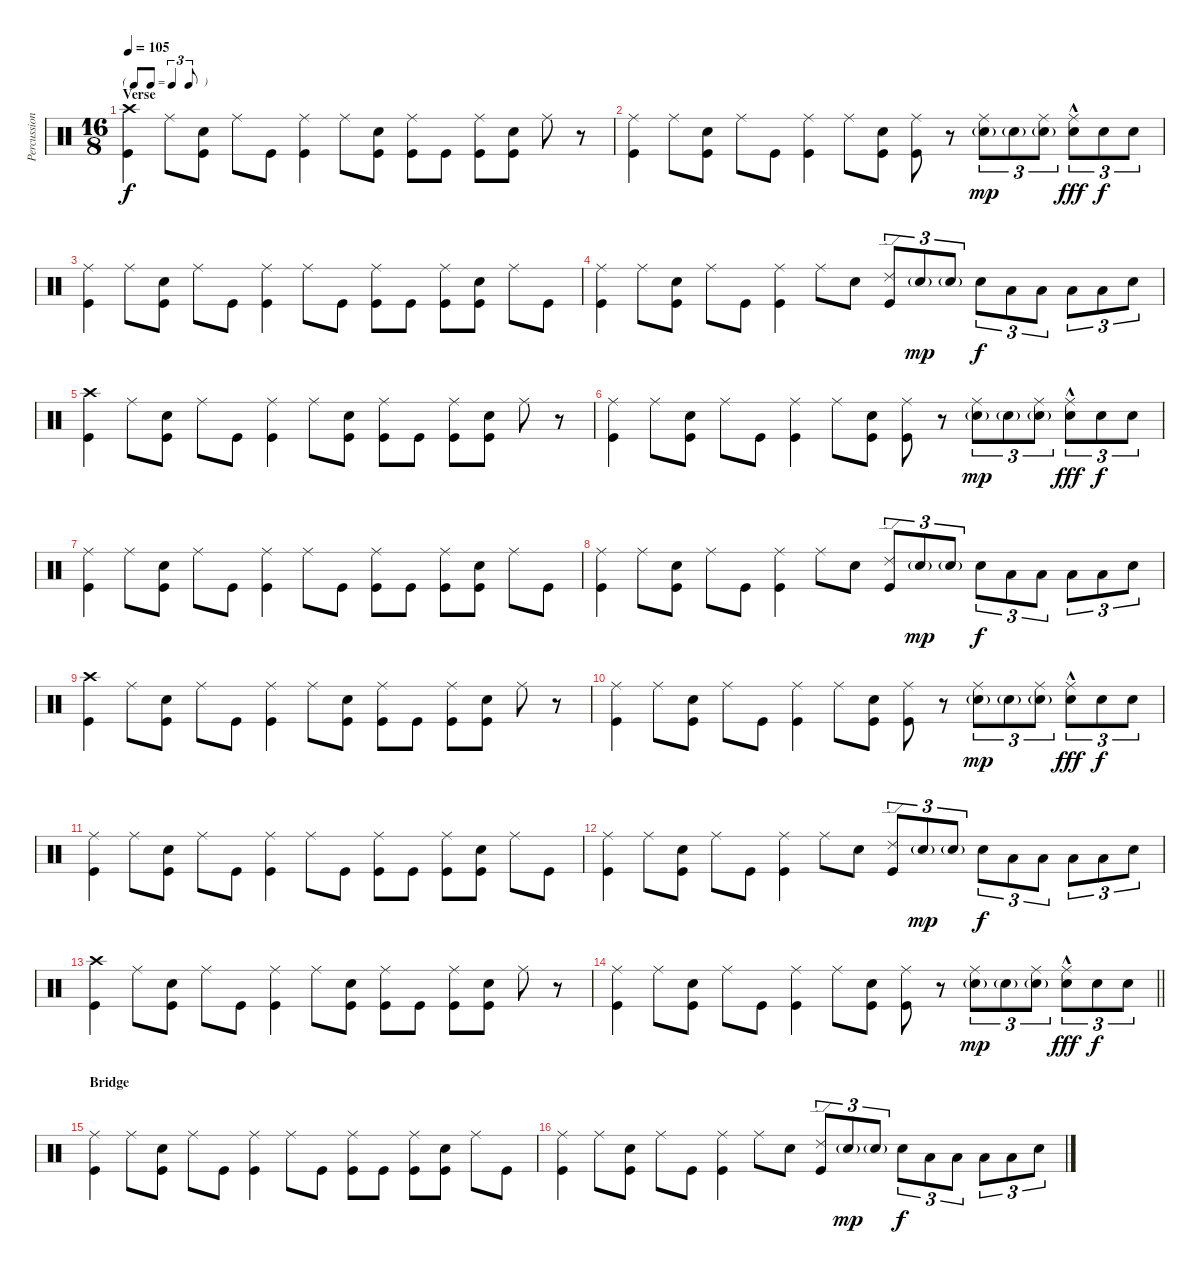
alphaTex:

\track ("Percussion" "Percussion") {instrument percussion}
\staff {score}
\articulation defaults
\ts (16 8)
\tf triplet8th
\section ("" "Verse")
\tempo 105
\clef neutral
\ks c
("Crash high (hit)" "Kick (hit)").4{dy f} "Ride (middle)".8 ("Electric Snare (hit)" "Kick (hit)").8 "Ride (middle)".8 "Kick (hit)".8 ("Ride (middle)" "Kick (hit)").4 "Ride (middle)".8 ("Electric Snare (hit)" "Kick (hit)").8 ("Ride (middle)" "Kick (hit)").8 "Kick (hit)".8 ("Ride (middle)" "Kick (hit)").8 ("Electric Snare (hit)" "Kick (hit)").8 "Ride (middle)".8 r.8 |
("Ride (middle)" "Kick (hit)").4 "Ride (middle)".8 ("Electric Snare (hit)" "Kick (hit)").8 "Ride (middle)".8 "Kick (hit)".8 ("Ride (middle)" "Kick (hit)").4 "Ride (middle)".8 ("Electric Snare (hit)" "Kick (hit)").8 ("Ride (middle)" "Kick (hit)").8 r.8 ("Ride (middle)" "Electric Snare (hit)"{g}).8{tu (3 2) dy mp} "Electric Snare (hit)"{g}.8{tu (3 2)} ("Ride (middle)" "Electric Snare (hit)"{g}).8{tu (3 2)} ("Ride (middle)"{hac} "Electric Snare (hit)").8{tu (3 2) dy fff} "Electric Snare (hit)".8{tu (3 2) dy f} "Electric Snare (hit)".8{tu (3 2)} |
("Ride (middle)" "Kick (hit)").4 "Ride (middle)".8 ("Electric Snare (hit)" "Kick (hit)").8 "Ride (middle)".8 "Kick (hit)".8 ("Ride (middle)" "Kick (hit)").4 "Ride (middle)".8 "Kick (hit)".8 ("Ride (middle)" "Kick (hit)").8 "Kick (hit)".8 ("Ride (middle)" "Kick (hit)").8 ("Electric Snare (hit)" "Kick (hit)").8 "Ride (middle)".8 "Kick (hit)".8 |
("Ride (middle)" "Kick (hit)").4 "Ride (middle)".8 ("Electric Snare (hit)" "Kick (hit)").8 "Ride (middle)".8 "Kick (hit)".8 ("Ride (middle)" "Kick (hit)").4 "Ride (middle)".8 "Electric Snare (hit)".8 ("Ride (edge) 2" "Kick (hit)").8{tu (3 2)} "Electric Snare (hit)"{g}.8{tu (3 2) dy mp} "Electric Snare (hit)"{g}.8{tu (3 2)} "Electric Snare (hit)".8{tu (3 2) dy f} "Low Floor Tom (hit)".8{tu (3 2)} "Low Floor Tom (hit)".8{tu (3 2)} "Low Floor Tom (hit)".8{tu (3 2)} "Low Floor Tom (hit)".8{tu (3 2)} "Electric Snare (hit)".8{tu (3 2)} |
("Crash high (hit)" "Kick (hit)").4 "Ride (middle)".8 ("Electric Snare (hit)" "Kick (hit)").8 "Ride (middle)".8 "Kick (hit)".8 ("Ride (middle)" "Kick (hit)").4 "Ride (middle)".8 ("Electric Snare (hit)" "Kick (hit)").8 ("Ride (middle)" "Kick (hit)").8 "Kick (hit)".8 ("Ride (middle)" "Kick (hit)").8 ("Electric Snare (hit)" "Kick (hit)").8 "Ride (middle)".8 r.8 |
("Ride (middle)" "Kick (hit)").4 "Ride (middle)".8 ("Electric Snare (hit)" "Kick (hit)").8 "Ride (middle)".8 "Kick (hit)".8 ("Ride (middle)" "Kick (hit)").4 "Ride (middle)".8 ("Electric Snare (hit)" "Kick (hit)").8 ("Ride (middle)" "Kick (hit)").8 r.8 ("Ride (middle)" "Electric Snare (hit)"{g}).8{tu (3 2) dy mp} "Electric Snare (hit)"{g}.8{tu (3 2)} ("Ride (middle)" "Electric Snare (hit)"{g}).8{tu (3 2)} ("Ride (middle)"{hac} "Electric Snare (hit)").8{tu (3 2) dy fff} "Electric Snare (hit)".8{tu (3 2) dy f} "Electric Snare (hit)".8{tu (3 2)} |
("Ride (middle)" "Kick (hit)").4 "Ride (middle)".8 ("Electric Snare (hit)" "Kick (hit)").8 "Ride (middle)".8 "Kick (hit)".8 ("Ride (middle)" "Kick (hit)").4 "Ride (middle)".8 "Kick (hit)".8 ("Ride (middle)" "Kick (hit)").8 "Kick (hit)".8 ("Ride (middle)" "Kick (hit)").8 ("Electric Snare (hit)" "Kick (hit)").8 "Ride (middle)".8 "Kick (hit)".8 |
("Ride (middle)" "Kick (hit)").4 "Ride (middle)".8 ("Electric Snare (hit)" "Kick (hit)").8 "Ride (middle)".8 "Kick (hit)".8 ("Ride (middle)" "Kick (hit)").4 "Ride (middle)".8 "Electric Snare (hit)".8 ("Ride (edge) 2" "Kick (hit)").8{tu (3 2)} "Electric Snare (hit)"{g}.8{tu (3 2) dy mp} "Electric Snare (hit)"{g}.8{tu (3 2)} "Electric Snare (hit)".8{tu (3 2) dy f} "Low Floor Tom (hit)".8{tu (3 2)} "Low Floor Tom (hit)".8{tu (3 2)} "Low Floor Tom (hit)".8{tu (3 2)} "Low Floor Tom (hit)".8{tu (3 2)} "Electric Snare (hit)".8{tu (3 2)} |
("Crash high (hit)" "Kick (hit)").4 "Ride (middle)".8 ("Electric Snare (hit)" "Kick (hit)").8 "Ride (middle)".8 "Kick (hit)".8 ("Ride (middle)" "Kick (hit)").4 "Ride (middle)".8 ("Electric Snare (hit)" "Kick (hit)").8 ("Ride (middle)" "Kick (hit)").8 "Kick (hit)".8 ("Ride (middle)" "Kick (hit)").8 ("Electric Snare (hit)" "Kick (hit)").8 "Ride (middle)".8 r.8 |
("Ride (middle)" "Kick (hit)").4 "Ride (middle)".8 ("Electric Snare (hit)" "Kick (hit)").8 "Ride (middle)".8 "Kick (hit)".8 ("Ride (middle)" "Kick (hit)").4 "Ride (middle)".8 ("Electric Snare (hit)" "Kick (hit)").8 ("Ride (middle)" "Kick (hit)").8 r.8 ("Ride (middle)" "Electric Snare (hit)"{g}).8{tu (3 2) dy mp} "Electric Snare (hit)"{g}.8{tu (3 2)} ("Ride (middle)" "Electric Snare (hit)"{g}).8{tu (3 2)} ("Ride (middle)"{hac} "Electric Snare (hit)").8{tu (3 2) dy fff} "Electric Snare (hit)".8{tu (3 2) dy f} "Electric Snare (hit)".8{tu (3 2)} |
("Ride (middle)" "Kick (hit)").4 "Ride (middle)".8 ("Electric Snare (hit)" "Kick (hit)").8 "Ride (middle)".8 "Kick (hit)".8 ("Ride (middle)" "Kick (hit)").4 "Ride (middle)".8 "Kick (hit)".8 ("Ride (middle)" "Kick (hit)").8 "Kick (hit)".8 ("Ride (middle)" "Kick (hit)").8 ("Electric Snare (hit)" "Kick (hit)").8 "Ride (middle)".8 "Kick (hit)".8 |
("Ride (middle)" "Kick (hit)").4 "Ride (middle)".8 ("Electric Snare (hit)" "Kick (hit)").8 "Ride (middle)".8 "Kick (hit)".8 ("Ride (middle)" "Kick (hit)").4 "Ride (middle)".8 "Electric Snare (hit)".8 ("Ride (edge) 2" "Kick (hit)").8{tu (3 2)} "Electric Snare (hit)"{g}.8{tu (3 2) dy mp} "Electric Snare (hit)"{g}.8{tu (3 2)} "Electric Snare (hit)".8{tu (3 2) dy f} "Low Floor Tom (hit)".8{tu (3 2)} "Low Floor Tom (hit)".8{tu (3 2)} "Low Floor Tom (hit)".8{tu (3 2)} "Low Floor Tom (hit)".8{tu (3 2)} "Electric Snare (hit)".8{tu (3 2)} |
("Crash high (hit)" "Kick (hit)").4 "Ride (middle)".8 ("Electric Snare (hit)" "Kick (hit)").8 "Ride (middle)".8 "Kick (hit)".8 ("Ride (middle)" "Kick (hit)").4 "Ride (middle)".8 ("Electric Snare (hit)" "Kick (hit)").8 ("Ride (middle)" "Kick (hit)").8 "Kick (hit)".8 ("Ride (middle)" "Kick (hit)").8 ("Electric Snare (hit)" "Kick (hit)").8 "Ride (middle)".8 r.8 |
\barLineRight lightlight
("Ride (middle)" "Kick (hit)").4 "Ride (middle)".8 ("Electric Snare (hit)" "Kick (hit)").8 "Ride (middle)".8 "Kick (hit)".8 ("Ride (middle)" "Kick (hit)").4 "Ride (middle)".8 ("Electric Snare (hit)" "Kick (hit)").8 ("Ride (middle)" "Kick (hit)").8 r.8 ("Ride (middle)" "Electric Snare (hit)"{g}).8{tu (3 2) dy mp} "Electric Snare (hit)"{g}.8{tu (3 2)} ("Ride (middle)" "Electric Snare (hit)"{g}).8{tu (3 2)} ("Ride (middle)"{hac} "Electric Snare (hit)").8{tu (3 2) dy fff} "Electric Snare (hit)".8{tu (3 2) dy f} "Electric Snare (hit)".8{tu (3 2)} |
\section ("" "Bridge")
("Ride (middle)" "Kick (hit)").4 "Ride (middle)".8 ("Electric Snare (hit)" "Kick (hit)").8 "Ride (middle)".8 "Kick (hit)".8 ("Ride (middle)" "Kick (hit)").4 "Ride (middle)".8 "Kick (hit)".8 ("Ride (middle)" "Kick (hit)").8 "Kick (hit)".8 ("Ride (middle)" "Kick (hit)").8 ("Electric Snare (hit)" "Kick (hit)").8 "Ride (middle)".8 "Kick (hit)".8 |
("Ride (middle)" "Kick (hit)").4 "Ride (middle)".8 ("Electric Snare (hit)" "Kick (hit)").8 "Ride (middle)".8 "Kick (hit)".8 ("Ride (middle)" "Kick (hit)").4 "Ride (middle)".8 "Electric Snare (hit)".8 ("Ride (edge) 2" "Kick (hit)").8{tu (3 2)} "Electric Snare (hit)"{g}.8{tu (3 2) dy mp} "Electric Snare (hit)"{g}.8{tu (3 2)} "Electric Snare (hit)".8{tu (3 2) dy f} "Low Floor Tom (hit)".8{tu (3 2)} "Low Floor Tom (hit)".8{tu (3 2)} "Low Floor Tom (hit)".8{tu (3 2)} "Low Floor Tom (hit)".8{tu (3 2)} "Electric Snare (hit)".8{tu (3 2)}
